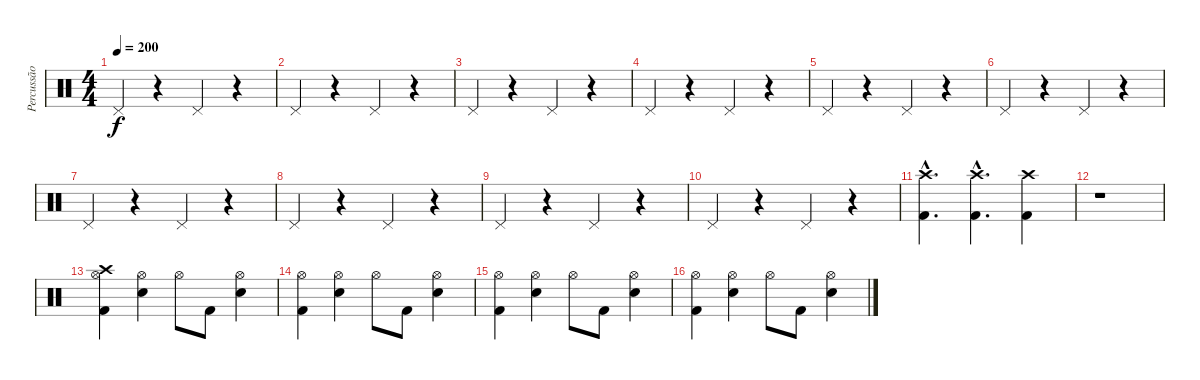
\track ("Percussão" "Percussão") {instrument percussion}
\staff {score}
\articulation defaults
\ts (4 4)
\tempo 200
\clef neutral
\ks c "Pedal Hi-Hat (hit)".4{dy f}
r.4 "Pedal Hi-Hat (hit)".4 r.4 |
"Pedal Hi-Hat (hit)".4 r.4 "Pedal Hi-Hat (hit)".4 r.4 |
"Pedal Hi-Hat (hit)".4 r.4 "Pedal Hi-Hat (hit)".4 r.4 |
"Pedal Hi-Hat (hit)".4 r.4 "Pedal Hi-Hat (hit)".4 r.4 |
"Pedal Hi-Hat (hit)".4 r.4 "Pedal Hi-Hat (hit)".4 r.4 |
"Pedal Hi-Hat (hit)".4 r.4 "Pedal Hi-Hat (hit)".4 r.4 |
"Pedal Hi-Hat (hit)".4 r.4 "Pedal Hi-Hat (hit)".4 r.4 |
"Pedal Hi-Hat (hit)".4 r.4 "Pedal Hi-Hat (hit)".4 r.4 |
"Pedal Hi-Hat (hit)".4 r.4 "Pedal Hi-Hat (hit)".4 r.4 |
"Pedal Hi-Hat (hit)".4 r.4 "Pedal Hi-Hat (hit)".4 r.4 |
("Crash high (hit)"{hac} "Kick (hit) 2"{hac}).4{d} ("Crash high (hit)"{hac} "Kick (hit) 2"{hac}).4{d} ("Crash high (hit)" "Kick (hit) 2").4 |
r.1 |
("Hi-Hat (open)" "Crash high (hit)" "Kick (hit) 2").4 ("Hi-Hat (open)" "Electric Snare (hit)").4 "Hi-Hat (open)".8 "Kick (hit) 2".8 ("Hi-Hat (open)" "Electric Snare (hit)").4 |
("Hi-Hat (open)" "Kick (hit) 2").4 ("Hi-Hat (open)" "Electric Snare (hit)").4 "Hi-Hat (open)".8 "Kick (hit) 2".8 ("Hi-Hat (open)" "Electric Snare (hit)").4 |
("Hi-Hat (open)" "Kick (hit) 2").4 ("Hi-Hat (open)" "Electric Snare (hit)").4 "Hi-Hat (open)".8 "Kick (hit) 2".8 ("Hi-Hat (open)" "Electric Snare (hit)").4 |
("Hi-Hat (open)" "Kick (hit) 2").4 ("Hi-Hat (open)" "Electric Snare (hit)").4 "Hi-Hat (open)".8 "Kick (hit) 2".8 ("Hi-Hat (open)" "Electric Snare (hit)").4
